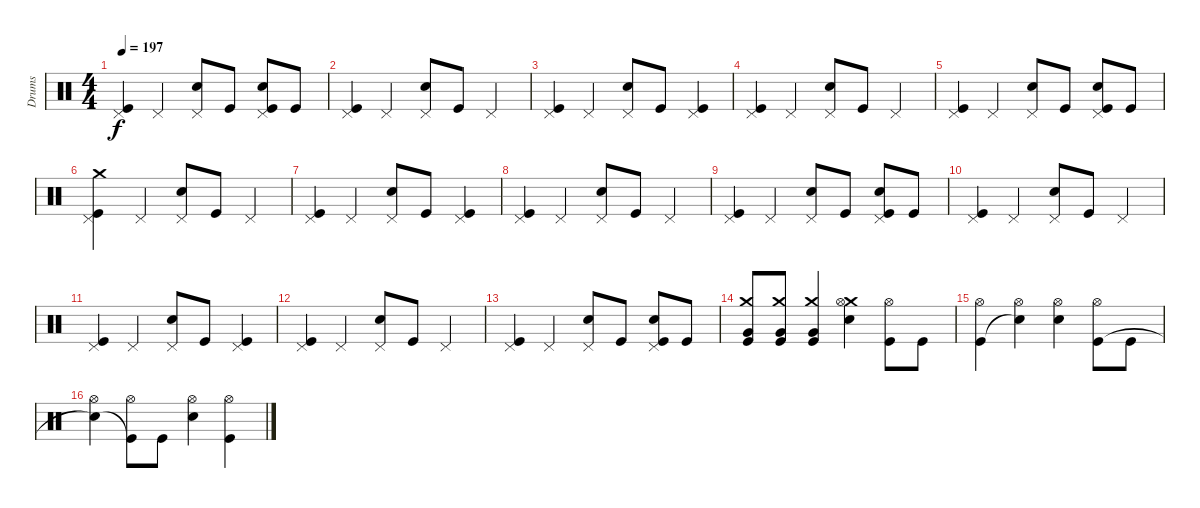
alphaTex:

\track ("Drums" "Drums") {instrument percussion}
\staff {score}
\articulation defaults
\ts (4 4)
\tempo 197
\clef neutral
\ks c
("Pedal Hi-Hat (hit)" "Kick (hit)").4{dy f} "Pedal Hi-Hat (hit)".4 ("Pedal Hi-Hat (hit)" "Snare (hit) 2").8 "Kick (hit)".8 ("Pedal Hi-Hat (hit)" "Snare (hit) 2" "Kick (hit)").8 "Kick (hit)".8 |
("Pedal Hi-Hat (hit)" "Kick (hit)").4 "Pedal Hi-Hat (hit)".4 ("Pedal Hi-Hat (hit)" "Snare (hit) 2").8 "Kick (hit)".8 "Pedal Hi-Hat (hit)".4 |
("Pedal Hi-Hat (hit)" "Kick (hit)").4 "Pedal Hi-Hat (hit)".4 ("Pedal Hi-Hat (hit)" "Snare (hit) 2").8 "Kick (hit)".8 ("Pedal Hi-Hat (hit)" "Kick (hit)").4 |
("Pedal Hi-Hat (hit)" "Kick (hit)").4 "Pedal Hi-Hat (hit)".4 ("Pedal Hi-Hat (hit)" "Snare (hit) 2").8 "Kick (hit)".8 "Pedal Hi-Hat (hit)".4 |
("Pedal Hi-Hat (hit)" "Kick (hit)").4 "Pedal Hi-Hat (hit)".4 ("Pedal Hi-Hat (hit)" "Snare (hit) 2").8 "Kick (hit)".8 ("Pedal Hi-Hat (hit)" "Snare (hit) 2" "Kick (hit)").8 "Kick (hit)".8 |
("Crash medium (hit)" "Pedal Hi-Hat (hit)" "Kick (hit)").4{volume 16} "Pedal Hi-Hat (hit)".4 ("Pedal Hi-Hat (hit)" "Snare (hit) 2").8 "Kick (hit)".8 "Pedal Hi-Hat (hit)".4 |
("Pedal Hi-Hat (hit)" "Kick (hit)").4 "Pedal Hi-Hat (hit)".4 ("Pedal Hi-Hat (hit)" "Snare (hit) 2").8 "Kick (hit)".8 ("Pedal Hi-Hat (hit)" "Kick (hit)").4 |
("Pedal Hi-Hat (hit)" "Kick (hit)").4 "Pedal Hi-Hat (hit)".4 ("Pedal Hi-Hat (hit)" "Snare (hit) 2").8 "Kick (hit)".8 "Pedal Hi-Hat (hit)".4 |
("Pedal Hi-Hat (hit)" "Kick (hit)").4 "Pedal Hi-Hat (hit)".4 ("Pedal Hi-Hat (hit)" "Snare (hit) 2").8 "Kick (hit)".8 ("Pedal Hi-Hat (hit)" "Snare (hit) 2" "Kick (hit)").8 "Kick (hit)".8 |
("Pedal Hi-Hat (hit)" "Kick (hit)").4 "Pedal Hi-Hat (hit)".4 ("Pedal Hi-Hat (hit)" "Snare (hit) 2").8 "Kick (hit)".8 "Pedal Hi-Hat (hit)".4 |
("Pedal Hi-Hat (hit)" "Kick (hit)").4 "Pedal Hi-Hat (hit)".4 ("Pedal Hi-Hat (hit)" "Snare (hit) 2").8 "Kick (hit)".8 ("Pedal Hi-Hat (hit)" "Kick (hit)").4 |
("Pedal Hi-Hat (hit)" "Kick (hit)").4 "Pedal Hi-Hat (hit)".4 ("Pedal Hi-Hat (hit)" "Snare (hit) 2").8 "Kick (hit)".8 "Pedal Hi-Hat (hit)".4 |
("Pedal Hi-Hat (hit)" "Kick (hit)").4 "Pedal Hi-Hat (hit)".4 ("Pedal Hi-Hat (hit)" "Snare (hit) 2").8 "Kick (hit)".8 ("Pedal Hi-Hat (hit)" "Snare (hit) 2" "Kick (hit)").8 "Kick (hit)".8 |
("Crash medium (hit)" "Very Low Tom (hit)" "Kick (hit)").8 ("Crash medium (hit)" "Very Low Tom (hit)" "Kick (hit)").8 ("Crash medium (hit)" "Very Low Tom (hit)" "Kick (hit)").4 ("Crash medium (hit)" "Hi-Hat (open)" "Snare (hit) 2").4 ("Hi-Hat (open)" "Kick (hit)").8 "Kick (hit)".8 |
("Hi-Hat (open)" "Kick (hit)").4 ("Hi-Hat (open)" "Snare (hit)"{t}).4 ("Hi-Hat (open)" "Snare (hit) 2").4 ("Hi-Hat (open)" "Kick (hit)").8 "Kick (hit)".8 |
("Hi-Hat (open)" "Snare (hit)"{t}).4 ("Hi-Hat (open)" "Kick (hit)"{t}).8 "Kick (hit)".8 ("Hi-Hat (open)" "Snare (hit) 2").4 ("Hi-Hat (open)" "Kick (hit)").4
